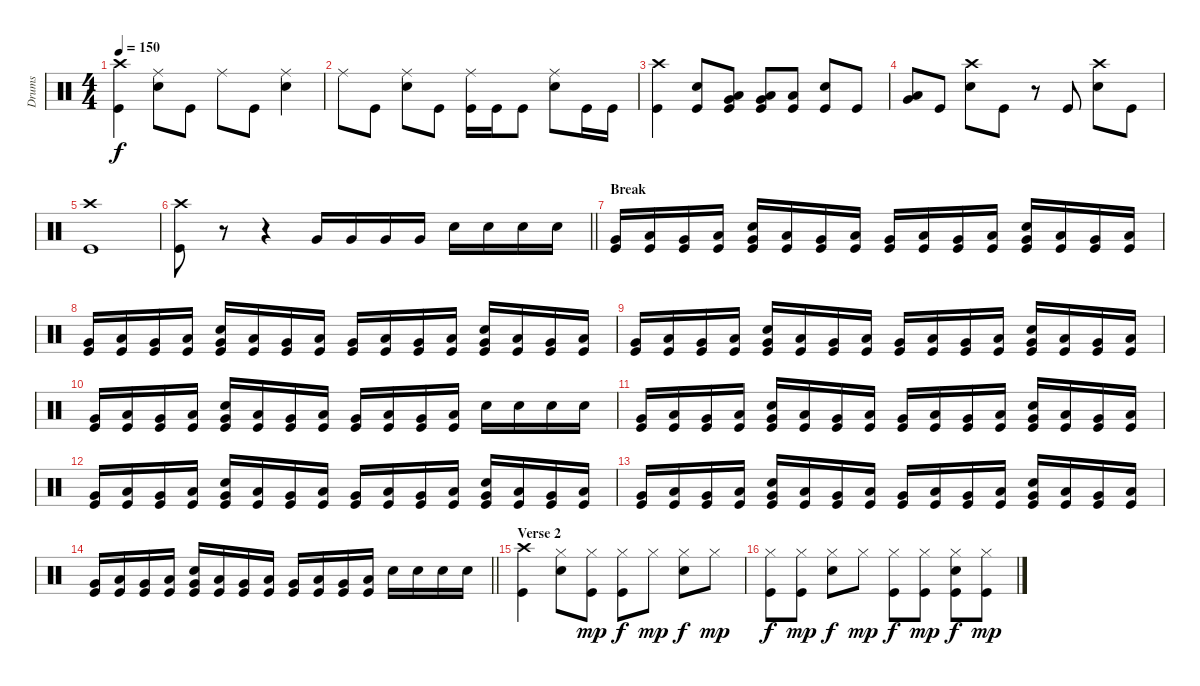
\track ("Drums" "Drums") {instrument percussion}
\staff {score}
\articulation defaults
\ts (4 4)
\tempo 150
\clef neutral
\ks c
("Crash high (hit)" "Kick (hit)").4{dy f} ("Snare (hit) 2" "Ride (middle)").8 "Kick (hit)".8 "Ride (middle)".8 "Kick (hit)".8 ("Snare (hit) 2" "Ride (middle)").4 |
"Ride (middle)".8 "Kick (hit)".8 ("Snare (hit) 2" "Ride (middle)").8 "Kick (hit)".8 ("Ride (middle)" "Kick (hit)").16 "Kick (hit)".16 "Kick (hit)".8 ("Ride (middle)" "Snare (hit) 2").8 "Kick (hit)".16 "Kick (hit)".16 |
("Crash high (hit)" "Kick (hit)").4 ("Snare (hit) 2" "Kick (hit)").8 ("Very Low Tom (hit)" "Low Tom (hit)" "Kick (hit)").8 ("Low Floor Tom (hit)" "Very Low Tom (hit)" "Kick (hit)").8 ("Low Floor Tom (hit)" "Kick (hit)").8 ("Snare (hit) 2" "Kick (hit)").8 "Kick (hit)".8 |
("Low Tom (hit)" "Very Low Tom (hit)").8 "Kick (hit)".8 ("Snare (hit) 2" "Crash high (hit)").8 "Kick (hit)".8 r.8 "Kick (hit)".8 ("Snare (hit) 2" "Crash high (hit)").8 "Kick (hit)".8 |
("Crash high (hit)" "Kick (hit)").1 |
\barLineRight lightlight
("Kick (hit)" "Crash high (hit)").8 r.8 r.4 "Very Low Tom (hit)".16 "Very Low Tom (hit)".16 "Very Low Tom (hit)".16 "Very Low Tom (hit)".16 "Snare (hit) 2".16 "Snare (hit) 2".16 "Snare (hit) 2".16 "Snare (hit) 2".16 |
\section ("" "Break")
("Very Low Tom (hit)" "Kick (hit)").16 ("Low Floor Tom (hit)" "Kick (hit)").16 ("Very Low Tom (hit)" "Kick (hit)").16 ("Low Floor Tom (hit)" "Kick (hit)").16 ("Snare (hit) 2" "Very Low Tom (hit)" "Kick (hit)").16 ("Low Floor Tom (hit)" "Kick (hit)").16 ("Very Low Tom (hit)" "Kick (hit)").16 ("Low Floor Tom (hit)" "Kick (hit)").16 ("Very Low Tom (hit)" "Kick (hit)").16 ("Low Floor Tom (hit)" "Kick (hit)").16 ("Very Low Tom (hit)" "Kick (hit)").16 ("Low Floor Tom (hit)" "Kick (hit)").16 ("Snare (hit) 2" "Very Low Tom (hit)" "Kick (hit)").16 ("Low Floor Tom (hit)" "Kick (hit)").16 ("Very Low Tom (hit)" "Kick (hit)").16 ("Low Floor Tom (hit)" "Kick (hit)").16 |
("Very Low Tom (hit)" "Kick (hit)").16 ("Low Floor Tom (hit)" "Kick (hit)").16 ("Very Low Tom (hit)" "Kick (hit)").16 ("Low Floor Tom (hit)" "Kick (hit)").16 ("Snare (hit) 2" "Very Low Tom (hit)" "Kick (hit)").16 ("Low Floor Tom (hit)" "Kick (hit)").16 ("Very Low Tom (hit)" "Kick (hit)").16 ("Low Floor Tom (hit)" "Kick (hit)").16 ("Very Low Tom (hit)" "Kick (hit)").16 ("Low Floor Tom (hit)" "Kick (hit)").16 ("Very Low Tom (hit)" "Kick (hit)").16 ("Low Floor Tom (hit)" "Kick (hit)").16 ("Snare (hit) 2" "Very Low Tom (hit)" "Kick (hit)").16 ("Low Floor Tom (hit)" "Kick (hit)").16 ("Very Low Tom (hit)" "Kick (hit)").16 ("Low Floor Tom (hit)" "Kick (hit)").16 |
("Very Low Tom (hit)" "Kick (hit)").16 ("Low Floor Tom (hit)" "Kick (hit)").16 ("Very Low Tom (hit)" "Kick (hit)").16 ("Low Floor Tom (hit)" "Kick (hit)").16 ("Snare (hit) 2" "Very Low Tom (hit)" "Kick (hit)").16 ("Low Floor Tom (hit)" "Kick (hit)").16 ("Very Low Tom (hit)" "Kick (hit)").16 ("Low Floor Tom (hit)" "Kick (hit)").16 ("Very Low Tom (hit)" "Kick (hit)").16 ("Low Floor Tom (hit)" "Kick (hit)").16 ("Very Low Tom (hit)" "Kick (hit)").16 ("Low Floor Tom (hit)" "Kick (hit)").16 ("Snare (hit) 2" "Very Low Tom (hit)" "Kick (hit)").16 ("Low Floor Tom (hit)" "Kick (hit)").16 ("Very Low Tom (hit)" "Kick (hit)").16 ("Low Floor Tom (hit)" "Kick (hit)").16 |
("Very Low Tom (hit)" "Kick (hit)").16 ("Low Floor Tom (hit)" "Kick (hit)").16 ("Very Low Tom (hit)" "Kick (hit)").16 ("Low Floor Tom (hit)" "Kick (hit)").16 ("Snare (hit) 2" "Very Low Tom (hit)" "Kick (hit)").16 ("Low Floor Tom (hit)" "Kick (hit)").16 ("Very Low Tom (hit)" "Kick (hit)").16 ("Low Floor Tom (hit)" "Kick (hit)").16 ("Very Low Tom (hit)" "Kick (hit)").16 ("Low Floor Tom (hit)" "Kick (hit)").16 ("Very Low Tom (hit)" "Kick (hit)").16 ("Low Floor Tom (hit)" "Kick (hit)").16 "Snare (hit) 2".16 "Snare (hit) 2".16 "Snare (hit) 2".16 "Snare (hit) 2".16 |
("Very Low Tom (hit)" "Kick (hit)").16 ("Low Floor Tom (hit)" "Kick (hit)").16 ("Very Low Tom (hit)" "Kick (hit)").16 ("Low Floor Tom (hit)" "Kick (hit)").16 ("Snare (hit) 2" "Very Low Tom (hit)" "Kick (hit)").16 ("Low Floor Tom (hit)" "Kick (hit)").16 ("Very Low Tom (hit)" "Kick (hit)").16 ("Low Floor Tom (hit)" "Kick (hit)").16 ("Very Low Tom (hit)" "Kick (hit)").16 ("Low Floor Tom (hit)" "Kick (hit)").16 ("Very Low Tom (hit)" "Kick (hit)").16 ("Low Floor Tom (hit)" "Kick (hit)").16 ("Snare (hit) 2" "Very Low Tom (hit)" "Kick (hit)").16 ("Low Floor Tom (hit)" "Kick (hit)").16 ("Very Low Tom (hit)" "Kick (hit)").16 ("Low Floor Tom (hit)" "Kick (hit)").16 |
("Very Low Tom (hit)" "Kick (hit)").16 ("Low Floor Tom (hit)" "Kick (hit)").16 ("Very Low Tom (hit)" "Kick (hit)").16 ("Low Floor Tom (hit)" "Kick (hit)").16 ("Snare (hit) 2" "Very Low Tom (hit)" "Kick (hit)").16 ("Low Floor Tom (hit)" "Kick (hit)").16 ("Very Low Tom (hit)" "Kick (hit)").16 ("Low Floor Tom (hit)" "Kick (hit)").16 ("Very Low Tom (hit)" "Kick (hit)").16 ("Low Floor Tom (hit)" "Kick (hit)").16 ("Very Low Tom (hit)" "Kick (hit)").16 ("Low Floor Tom (hit)" "Kick (hit)").16 ("Snare (hit) 2" "Very Low Tom (hit)" "Kick (hit)").16 ("Low Floor Tom (hit)" "Kick (hit)").16 ("Very Low Tom (hit)" "Kick (hit)").16 ("Low Floor Tom (hit)" "Kick (hit)").16 |
("Very Low Tom (hit)" "Kick (hit)").16 ("Low Floor Tom (hit)" "Kick (hit)").16 ("Very Low Tom (hit)" "Kick (hit)").16 ("Low Floor Tom (hit)" "Kick (hit)").16 ("Snare (hit) 2" "Very Low Tom (hit)" "Kick (hit)").16 ("Low Floor Tom (hit)" "Kick (hit)").16 ("Very Low Tom (hit)" "Kick (hit)").16 ("Low Floor Tom (hit)" "Kick (hit)").16 ("Very Low Tom (hit)" "Kick (hit)").16 ("Low Floor Tom (hit)" "Kick (hit)").16 ("Very Low Tom (hit)" "Kick (hit)").16 ("Low Floor Tom (hit)" "Kick (hit)").16 ("Snare (hit) 2" "Very Low Tom (hit)" "Kick (hit)").16 ("Low Floor Tom (hit)" "Kick (hit)").16 ("Very Low Tom (hit)" "Kick (hit)").16 ("Low Floor Tom (hit)" "Kick (hit)").16 |
\barLineRight lightlight
("Very Low Tom (hit)" "Kick (hit)").16 ("Low Floor Tom (hit)" "Kick (hit)").16 ("Very Low Tom (hit)" "Kick (hit)").16 ("Low Floor Tom (hit)" "Kick (hit)").16 ("Snare (hit) 2" "Very Low Tom (hit)" "Kick (hit)").16 ("Low Floor Tom (hit)" "Kick (hit)").16 ("Very Low Tom (hit)" "Kick (hit)").16 ("Low Floor Tom (hit)" "Kick (hit)").16 ("Very Low Tom (hit)" "Kick (hit)").16 ("Low Floor Tom (hit)" "Kick (hit)").16 ("Very Low Tom (hit)" "Kick (hit)").16 ("Low Floor Tom (hit)" "Kick (hit)").16 "Snare (hit) 2".16 "Snare (hit) 2".16 "Snare (hit) 2".16 "Snare (hit) 2".16 |
\section ("" "Verse 2")
("Crash high (hit)" "Kick (hit)").4 ("Hi-Hat (closed)" "Snare (hit) 2").8 ("Hi-Hat (closed)" "Kick (hit)").8{dy mp} ("Hi-Hat (closed)" "Kick (hit)").8{dy f} "Hi-Hat (closed)".8{dy mp} ("Hi-Hat (closed)" "Snare (hit) 2").8{dy f} "Hi-Hat (closed)".8{dy mp} |
("Hi-Hat (closed)" "Kick (hit)").8{dy f} ("Hi-Hat (closed)" "Kick (hit)").8{dy mp} ("Hi-Hat (closed)" "Snare (hit) 2").8{dy f} "Hi-Hat (closed)".8{dy mp} ("Hi-Hat (closed)" "Kick (hit)").8{dy f} ("Hi-Hat (closed)" "Kick (hit)").8{dy mp} ("Snare (hit) 2" "Hi-Hat (closed)" "Kick (hit)").8{dy f} ("Hi-Hat (closed)" "Kick (hit)").8{dy mp}
